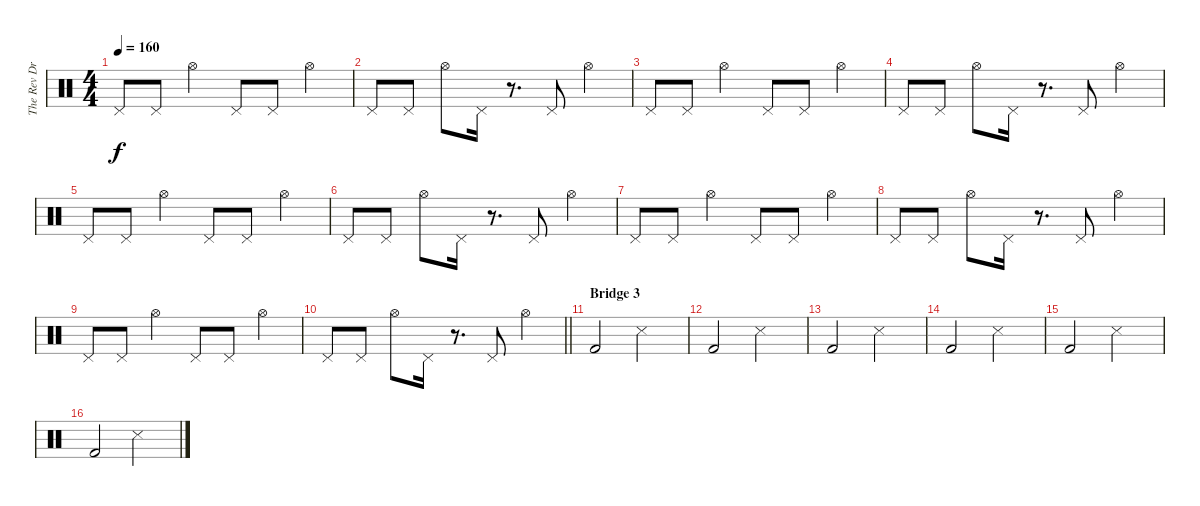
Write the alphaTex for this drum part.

\track ("The Rev Drum" "The Rev Dr") {instrument percussion}
\staff {score}
\articulation defaults
\ts (4 4)
\tempo 160
\clef neutral
\ks c "Pedal Hi-Hat (hit)".8{dy f} "Pedal Hi-Hat (hit)".8 "Hi-Hat (open)".4 "Pedal Hi-Hat (hit)".8 "Pedal Hi-Hat (hit)".8 "Hi-Hat (open)".4
|
"Pedal Hi-Hat (hit)".8 "Pedal Hi-Hat (hit)".8 "Hi-Hat (open)".8 "Pedal Hi-Hat (hit)".16 r.8{d} "Pedal Hi-Hat (hit)".8 "Hi-Hat (open)".4 |
"Pedal Hi-Hat (hit)".8 "Pedal Hi-Hat (hit)".8 "Hi-Hat (open)".4 "Pedal Hi-Hat (hit)".8 "Pedal Hi-Hat (hit)".8 "Hi-Hat (open)".4 |
"Pedal Hi-Hat (hit)".8 "Pedal Hi-Hat (hit)".8 "Hi-Hat (open)".8 "Pedal Hi-Hat (hit)".16 r.8{d} "Pedal Hi-Hat (hit)".8 "Hi-Hat (open)".4 |
"Pedal Hi-Hat (hit)".8 "Pedal Hi-Hat (hit)".8 "Hi-Hat (open)".4 "Pedal Hi-Hat (hit)".8 "Pedal Hi-Hat (hit)".8 "Hi-Hat (open)".4 |
"Pedal Hi-Hat (hit)".8 "Pedal Hi-Hat (hit)".8 "Hi-Hat (open)".8 "Pedal Hi-Hat (hit)".16 r.8{d} "Pedal Hi-Hat (hit)".8 "Hi-Hat (open)".4 |
"Pedal Hi-Hat (hit)".8 "Pedal Hi-Hat (hit)".8 "Hi-Hat (open)".4 "Pedal Hi-Hat (hit)".8 "Pedal Hi-Hat (hit)".8 "Hi-Hat (open)".4 |
"Pedal Hi-Hat (hit)".8 "Pedal Hi-Hat (hit)".8 "Hi-Hat (open)".8 "Pedal Hi-Hat (hit)".16 r.8{d} "Pedal Hi-Hat (hit)".8 "Hi-Hat (open)".4 |
"Pedal Hi-Hat (hit)".8 "Pedal Hi-Hat (hit)".8 "Hi-Hat (open)".4 "Pedal Hi-Hat (hit)".8 "Pedal Hi-Hat (hit)".8 "Hi-Hat (open)".4 |
\barLineRight lightlight "Pedal Hi-Hat (hit)".8 "Pedal Hi-Hat (hit)".8 "Hi-Hat (open)".8 "Pedal Hi-Hat (hit)".16
r.8{d} "Pedal Hi-Hat (hit)".8 "Hi-Hat (open)".4 |
\section ("" "Bridge 3")
"Kick (hit) 2".2{volume 16} "Metronome (hit)".2 |
"Kick (hit) 2".2 "Metronome (hit)".2 |
"Kick (hit) 2".2 "Metronome (hit)".2 |
"Kick (hit) 2".2 "Metronome (hit)".2 |
"Kick (hit) 2".2 "Metronome (hit)".2 |
"Kick (hit) 2".2 "Metronome (hit)".2
